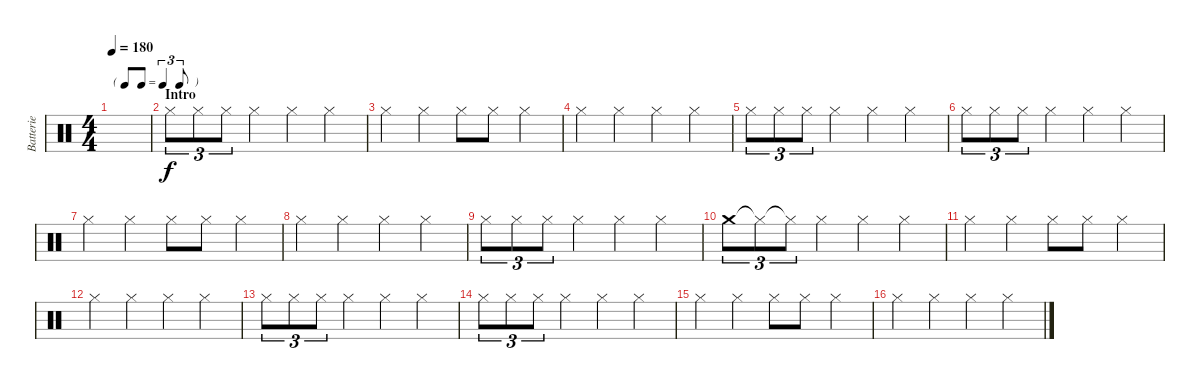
\track ("Batterie" "Batterie") {instrument percussion}
\staff {score}
\articulation defaults
\ts (4 4)
\tf triplet8th
\tempo 180
\clef neutral
\ks c
|
\section ("" "Intro")
"Hi-Hat (closed)".8{tu (3 2)} "Hi-Hat (closed)".8{tu (3 2)} "Hi-Hat (closed)".8{tu (3 2)} "Hi-Hat (closed)".4 "Hi-Hat (closed)".4 "Hi-Hat (closed)".4 |
"Hi-Hat (closed)".4 "Hi-Hat (closed)".4 "Hi-Hat (closed)".8 "Hi-Hat (closed)".8 "Hi-Hat (closed)".4 |
"Hi-Hat (closed)".4 "Hi-Hat (closed)".4 "Hi-Hat (closed)".4 "Hi-Hat (closed)".4 |
"Hi-Hat (closed)".8{tu (3 2)} "Hi-Hat (closed)".8{tu (3 2)} "Hi-Hat (closed)".8{tu (3 2)} "Hi-Hat (closed)".4 "Hi-Hat (closed)".4 "Hi-Hat (closed)".4 |
"Hi-Hat (closed)".8{tu (3 2)} "Hi-Hat (closed)".8{tu (3 2)} "Hi-Hat (closed)".8{tu (3 2)} "Hi-Hat (closed)".4 "Hi-Hat (closed)".4 "Hi-Hat (closed)".4 |
"Hi-Hat (closed)".4 "Hi-Hat (closed)".4 "Hi-Hat (closed)".8 "Hi-Hat (closed)".8 "Hi-Hat (closed)".4 |
"Hi-Hat (closed)".4 "Hi-Hat (closed)".4 "Hi-Hat (closed)".4 "Hi-Hat (closed)".4 |
"Hi-Hat (closed)".8{tu (3 2)} "Hi-Hat (closed)".8{tu (3 2)} "Hi-Hat (closed)".8{tu (3 2)} "Hi-Hat (closed)".4 "Hi-Hat (closed)".4 "Hi-Hat (closed)".4 |
"Crash medium (hit)".8{tu (3 2)} "Hi-Hat (closed)"{t}.8{tu (3 2)} "Hi-Hat (closed)"{t}.8{tu (3 2)} "Hi-Hat (closed)".4 "Hi-Hat (closed)".4 "Hi-Hat (closed)".4 |
"Hi-Hat (closed)".4 "Hi-Hat (closed)".4 "Hi-Hat (closed)".8 "Hi-Hat (closed)".8 "Hi-Hat (closed)".4 |
"Hi-Hat (closed)".4 "Hi-Hat (closed)".4 "Hi-Hat (closed)".4 "Hi-Hat (closed)".4 |
"Hi-Hat (closed)".8{tu (3 2)} "Hi-Hat (closed)".8{tu (3 2)} "Hi-Hat (closed)".8{tu (3 2)} "Hi-Hat (closed)".4 "Hi-Hat (closed)".4 "Hi-Hat (closed)".4 |
"Hi-Hat (closed)".8{tu (3 2)} "Hi-Hat (closed)".8{tu (3 2)} "Hi-Hat (closed)".8{tu (3 2)} "Hi-Hat (closed)".4 "Hi-Hat (closed)".4 "Hi-Hat (closed)".4 |
"Hi-Hat (closed)".4 "Hi-Hat (closed)".4 "Hi-Hat (closed)".8 "Hi-Hat (closed)".8 "Hi-Hat (closed)".4 |
"Hi-Hat (closed)".4 "Hi-Hat (closed)".4 "Hi-Hat (closed)".4 "Hi-Hat (closed)".4
